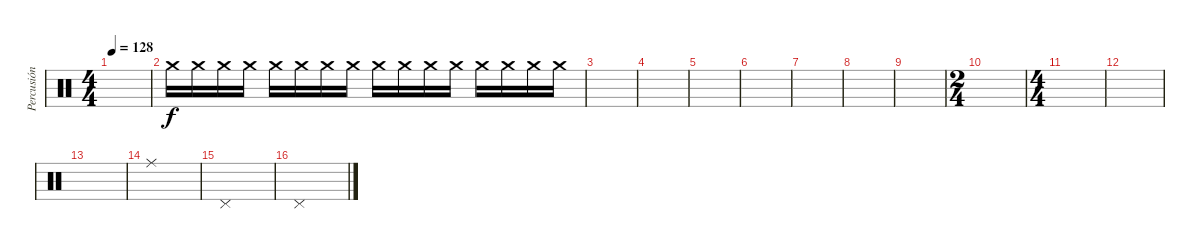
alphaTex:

\track ("Percusión" "Percusión") {instrument percussion}
\staff {score}
\articulation defaults
\ts (4 4)
\tempo 128
\clef neutral
\ks c
|
"Crash medium (hit)".16{volume 0} "Crash medium (hit)".16 "Crash medium (hit)".16 "Crash medium (hit)".16{volume 16} "Crash medium (hit)".16 "Crash medium (hit)".16 "Crash medium (hit)".16 "Crash medium (hit)".16 "Crash medium (hit)".16 "Crash medium (hit)".16 "Crash medium (hit)".16 "Crash medium (hit)".16 "Crash medium (hit)".16 "Crash medium (hit)".16 "Crash medium (hit)".16 "Crash medium (hit)".16 |
|
|
|
|
|
|
|
\ts (2 4)
|
\ts (4 4)
|
|
|
"Ride (middle)".1 |
"Pedal Hi-Hat (hit)".1 |
"Pedal Hi-Hat (hit)".1
